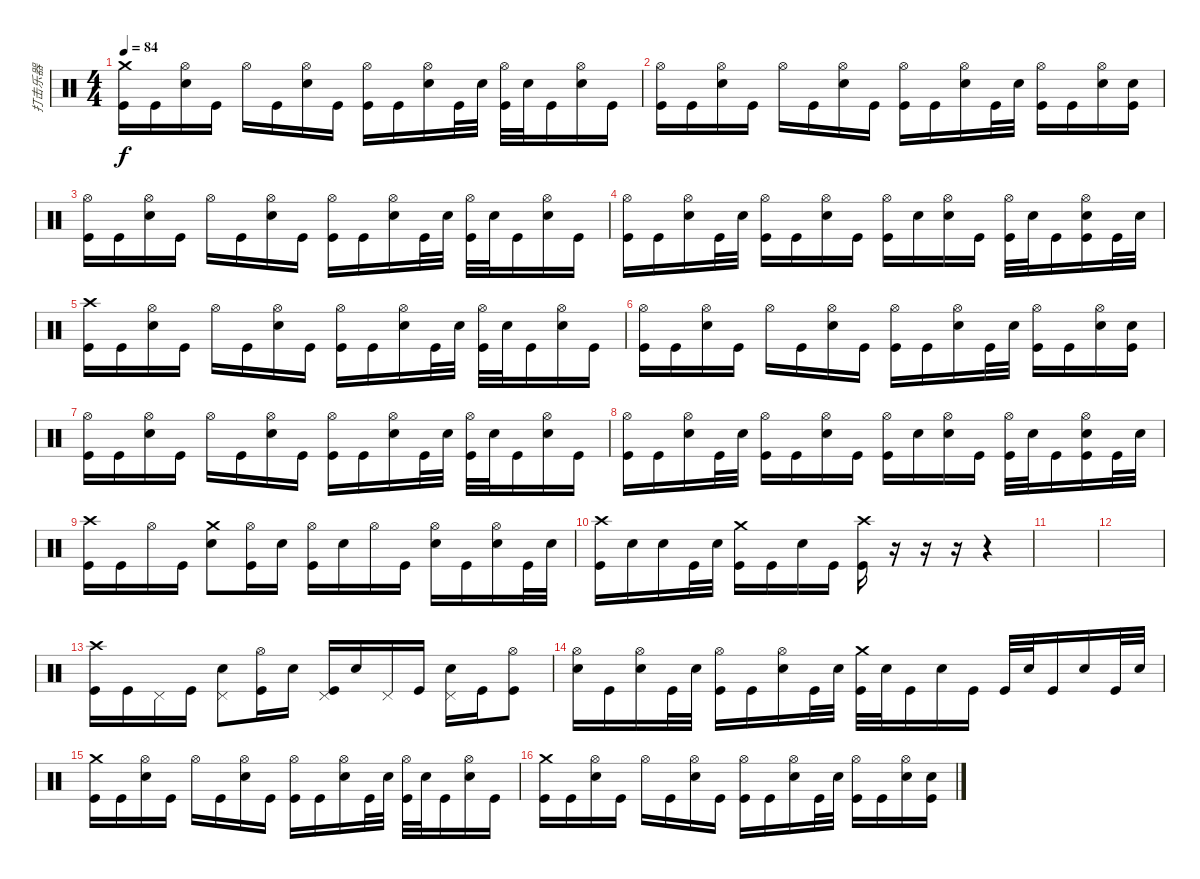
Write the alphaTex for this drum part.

\track ("打击乐器" "打击乐器") {instrument percussion}
\staff {score}
\articulation defaults
\ts (4 4)
\tempo 84
\clef neutral
\ks c
("Crash medium (hit)" "Kick (hit)").16{dy f} "Kick (hit)".16 ("Hi-Hat (open)" "Electric Snare (hit)").16 "Kick (hit)".16 "Hi-Hat (open)".16 "Kick (hit)".16 ("Hi-Hat (open)" "Electric Snare (hit)").16 "Kick (hit)".16 ("Hi-Hat (open)" "Kick (hit)").16 "Kick (hit)".16 ("Hi-Hat (open)" "Electric Snare (hit)").16 "Kick (hit)".32 "Electric Snare (hit)".32 ("Hi-Hat (open)" "Kick (hit)").32 "Electric Snare (hit)".32 "Kick (hit)".16 ("Hi-Hat (open)" "Electric Snare (hit)").16 "Kick (hit)".16 |
("Hi-Hat (open)" "Kick (hit)").16 "Kick (hit)".16 ("Hi-Hat (open)" "Electric Snare (hit)").16 "Kick (hit)".16 "Hi-Hat (open)".16 "Kick (hit)".16 ("Hi-Hat (open)" "Electric Snare (hit)").16 "Kick (hit)".16 ("Hi-Hat (open)" "Kick (hit)").16 "Kick (hit)".16 ("Hi-Hat (open)" "Electric Snare (hit)").16 "Kick (hit)".32 "Electric Snare (hit)".32 ("Hi-Hat (open)" "Kick (hit)").16 "Kick (hit)".16 ("Hi-Hat (open)" "Electric Snare (hit)").16 ("Electric Snare (hit)" "Kick (hit)").16 |
("Hi-Hat (open)" "Kick (hit)").16 "Kick (hit)".16 ("Hi-Hat (open)" "Electric Snare (hit)").16 "Kick (hit)".16 "Hi-Hat (open)".16 "Kick (hit)".16 ("Hi-Hat (open)" "Electric Snare (hit)").16 "Kick (hit)".16 ("Hi-Hat (open)" "Kick (hit)").16 "Kick (hit)".16 ("Hi-Hat (open)" "Electric Snare (hit)").16 "Kick (hit)".32 "Electric Snare (hit)".32 ("Hi-Hat (open)" "Kick (hit)").32 "Electric Snare (hit)".32 "Kick (hit)".16 ("Hi-Hat (open)" "Electric Snare (hit)").16 "Kick (hit)".16 |
("Hi-Hat (open)" "Kick (hit)").16 "Kick (hit)".16 ("Hi-Hat (open)" "Electric Snare (hit)").16 "Kick (hit)".32 "Electric Snare (hit)".32 ("Hi-Hat (open)" "Kick (hit)").16 "Kick (hit)".16 ("Hi-Hat (open)" "Electric Snare (hit)").16 "Kick (hit)".16 ("Hi-Hat (open)" "Kick (hit)").16 "Electric Snare (hit)".16 ("Hi-Hat (open)" "Electric Snare (hit)").16 "Kick (hit)".16 ("Hi-Hat (open)" "Kick (hit)").32 "Electric Snare (hit)".32 "Kick (hit)".16 ("Hi-Hat (open)" "Electric Snare (hit)" "Kick (hit)").16 "Kick (hit)".32 "Electric Snare (hit)".32 |
("Crash high (hit)" "Kick (hit)").16 "Kick (hit)".16 ("Hi-Hat (open)" "Electric Snare (hit)").16 "Kick (hit)".16 "Hi-Hat (open)".16 "Kick (hit)".16 ("Hi-Hat (open)" "Electric Snare (hit)").16 "Kick (hit)".16 ("Hi-Hat (open)" "Kick (hit)").16 "Kick (hit)".16 ("Hi-Hat (open)" "Electric Snare (hit)").16 "Kick (hit)".32 "Electric Snare (hit)".32 ("Hi-Hat (open)" "Kick (hit)").32 "Electric Snare (hit)".32 "Kick (hit)".16 ("Hi-Hat (open)" "Electric Snare (hit)").16 "Kick (hit)".16 |
("Hi-Hat (open)" "Kick (hit)").16 "Kick (hit)".16 ("Hi-Hat (open)" "Electric Snare (hit)").16 "Kick (hit)".16 "Hi-Hat (open)".16 "Kick (hit)".16 ("Hi-Hat (open)" "Electric Snare (hit)").16 "Kick (hit)".16 ("Hi-Hat (open)" "Kick (hit)").16 "Kick (hit)".16 ("Hi-Hat (open)" "Electric Snare (hit)").16 "Kick (hit)".32 "Electric Snare (hit)".32 ("Hi-Hat (open)" "Kick (hit)").16 "Kick (hit)".16 ("Hi-Hat (open)" "Electric Snare (hit)").16 ("Electric Snare (hit)" "Kick (hit)").16 |
("Hi-Hat (open)" "Kick (hit)").16 "Kick (hit)".16 ("Hi-Hat (open)" "Electric Snare (hit)").16 "Kick (hit)".16 "Hi-Hat (open)".16 "Kick (hit)".16 ("Hi-Hat (open)" "Electric Snare (hit)").16 "Kick (hit)".16 ("Hi-Hat (open)" "Kick (hit)").16 "Kick (hit)".16 ("Hi-Hat (open)" "Electric Snare (hit)").16 "Kick (hit)".32 "Electric Snare (hit)".32 ("Hi-Hat (open)" "Kick (hit)").32 "Electric Snare (hit)".32 "Kick (hit)".16 ("Hi-Hat (open)" "Electric Snare (hit)").16 "Kick (hit)".16 |
("Hi-Hat (open)" "Kick (hit)").16 "Kick (hit)".16 ("Hi-Hat (open)" "Electric Snare (hit)").16 "Kick (hit)".32 "Electric Snare (hit)".32 ("Hi-Hat (open)" "Kick (hit)").16 "Kick (hit)".16 ("Hi-Hat (open)" "Electric Snare (hit)").16 "Kick (hit)".16 ("Hi-Hat (open)" "Kick (hit)").16 "Electric Snare (hit)".16 ("Hi-Hat (open)" "Electric Snare (hit)").16 "Kick (hit)".16 ("Hi-Hat (open)" "Kick (hit)").32 "Electric Snare (hit)".32 "Kick (hit)".16 ("Hi-Hat (open)" "Electric Snare (hit)" "Kick (hit)").16 "Kick (hit)".32 "Electric Snare (hit)".32 |
("Crash high (hit)" "Kick (hit)").16 "Kick (hit)".16 "Hi-Hat (open)".16 "Kick (hit)".16 ("Crash medium (hit)" "Electric Snare (hit)").8 ("Hi-Hat (open)" "Kick (hit)").16 "Electric Snare (hit)".16 ("Hi-Hat (open)" "Kick (hit)").16 "Electric Snare (hit)".16 "Hi-Hat (open)".16 "Kick (hit)".16 ("Hi-Hat (open)" "Electric Snare (hit)").16 "Kick (hit)".16 ("Hi-Hat (open)" "Electric Snare (hit)").16 "Kick (hit)".32 "Electric Snare (hit)".32 |
("Crash high (hit)" "Kick (hit)").16 "Electric Snare (hit)".16 "Electric Snare (hit)".16 "Kick (hit)".32 "Electric Snare (hit)".32 ("Crash medium (hit)" "Kick (hit)").16 "Kick (hit)".16 "Electric Snare (hit)".16 "Kick (hit)".16 ("Crash high (hit)" "Kick (hit)").16 r.16 r.16 r.16 r.4 |
|
|
("Crash high (hit)" "Kick (hit)").16 "Kick (hit)".16 "Pedal Hi-Hat (hit)".16 "Kick (hit)".16 ("Pedal Hi-Hat (hit)" "Electric Snare (hit)").8 ("Hi-Hat (open)" "Kick (hit)").16 "Electric Snare (hit)".16 ("Pedal Hi-Hat (hit)" "Kick (hit)").16 "Electric Snare (hit)".16 "Pedal Hi-Hat (hit)".16 "Kick (hit)".16 ("Pedal Hi-Hat (hit)" "Electric Snare (hit)").16 "Kick (hit)".16 ("Hi-Hat (open)" "Kick (hit)").8 |
("Hi-Hat (open)" "Electric Snare (hit)").16 "Kick (hit)".16 ("Hi-Hat (open)" "Electric Snare (hit)").16 "Kick (hit)".32 "Electric Snare (hit)".32 ("Hi-Hat (open)" "Kick (hit)").16 "Kick (hit)".16 ("Hi-Hat (open)" "Electric Snare (hit)").16 "Kick (hit)".32 "Electric Snare (hit)".32 ("Crash medium (hit)" "Kick (hit)").32 "Electric Snare (hit)".32 "Kick (hit)".16 "Electric Snare (hit)".16 "Kick (hit)".16 "Kick (hit)".32 "Electric Snare (hit)".32 "Kick (hit)".16 "Electric Snare (hit)".16 "Kick (hit)".32 "Electric Snare (hit)".32 |
("Crash medium (hit)" "Kick (hit)").16 "Kick (hit)".16 ("Hi-Hat (open)" "Electric Snare (hit)").16 "Kick (hit)".16 "Hi-Hat (open)".16 "Kick (hit)".16 ("Hi-Hat (open)" "Electric Snare (hit)").16 "Kick (hit)".16 ("Hi-Hat (open)" "Kick (hit)").16 "Kick (hit)".16 ("Hi-Hat (open)" "Electric Snare (hit)").16 "Kick (hit)".32 "Electric Snare (hit)".32 ("Hi-Hat (open)" "Kick (hit)").32 "Electric Snare (hit)".32 "Kick (hit)".16 ("Hi-Hat (open)" "Electric Snare (hit)").16 "Kick (hit)".16 |
("Crash medium (hit)" "Kick (hit)").16 "Kick (hit)".16 ("Hi-Hat (open)" "Electric Snare (hit)").16 "Kick (hit)".16 "Hi-Hat (open)".16 "Kick (hit)".16 ("Hi-Hat (open)" "Electric Snare (hit)").16 "Kick (hit)".16 ("Hi-Hat (open)" "Kick (hit)").16 "Kick (hit)".16 ("Hi-Hat (open)" "Electric Snare (hit)").16 "Kick (hit)".32 "Electric Snare (hit)".32 ("Hi-Hat (open)" "Kick (hit)").16 "Kick (hit)".16 ("Hi-Hat (open)" "Electric Snare (hit)").16 ("Electric Snare (hit)" "Kick (hit)").16
